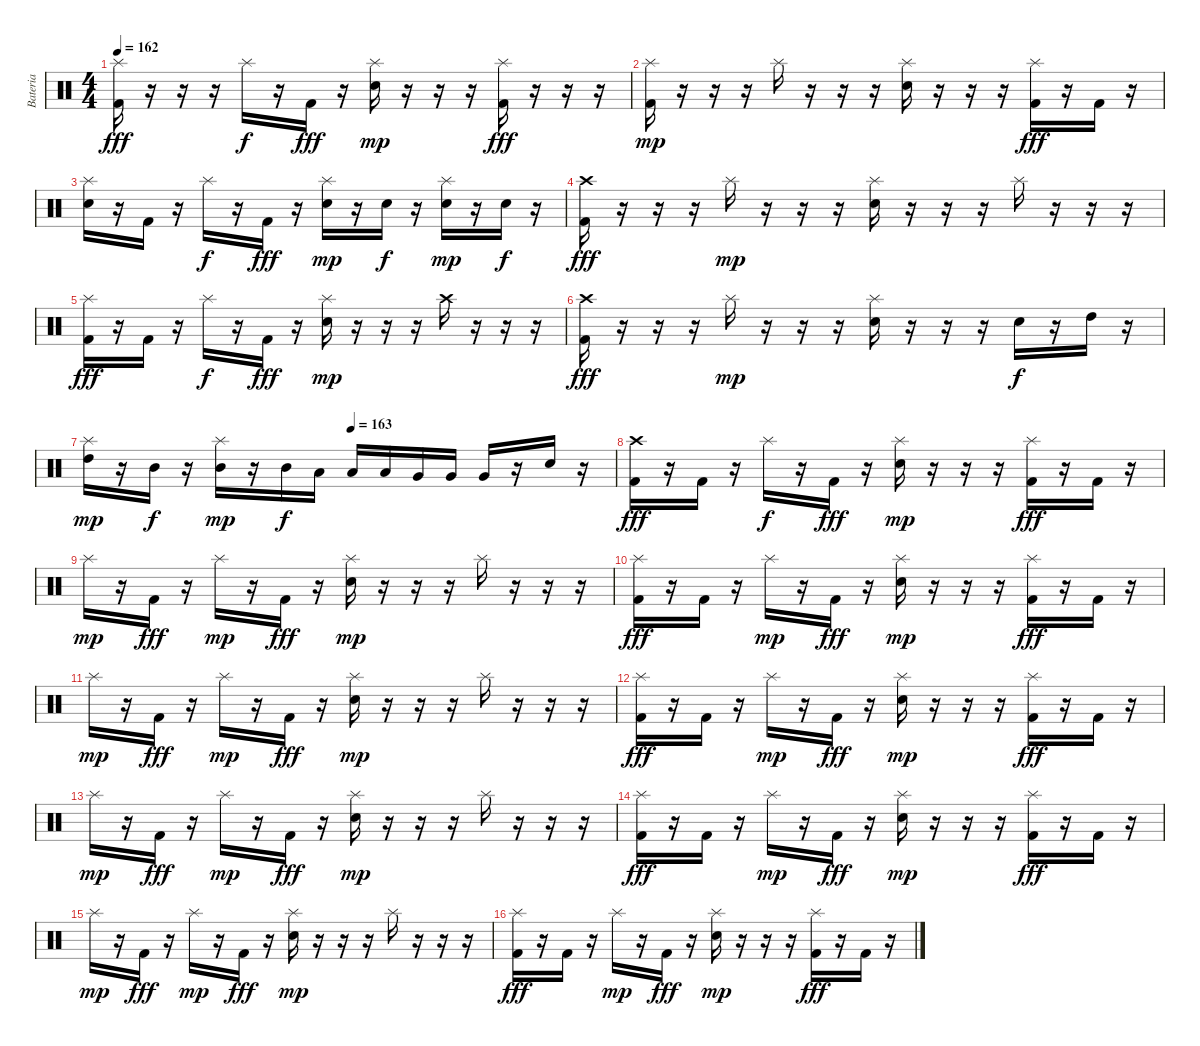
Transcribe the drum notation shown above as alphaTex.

\track ("Bateria" "Bateria") {instrument percussion}
\staff {score}
\articulation defaults
\ts (4 4)
\tempo 162
\clef neutral
\ks c
("Splash (hit)" "Kick (hit) 2").16{dy fff} r.16 r.16 r.16 "Splash (hit)".16{dy f} r.16 "Kick (hit) 2".16{dy fff} r.16 ("Splash (hit)" "Electric Snare (hit)").16{dy mp} r.16 r.16 r.16 ("Splash (hit)" "Kick (hit) 2").16{dy fff} r.16 r.16 r.16 |
("Splash (hit)" "Kick (hit) 2").16{dy mp} r.16 r.16 r.16 "Splash (hit)".16 r.16 r.16 r.16 ("Splash (hit)" "Electric Snare (hit)").16 r.16 r.16 r.16 ("Splash (hit)" "Kick (hit) 2").16{dy fff} r.16 "Kick (hit) 2".16 r.16 |
("Splash (hit)" "Electric Snare (hit)").16 r.16 "Kick (hit) 2".16 r.16 "Splash (hit)".16{dy f} r.16 "Kick (hit) 2".16{dy fff} r.16 ("Splash (hit)" "Electric Snare (hit)").16{dy mp} r.16 "Electric Snare (hit)".16{dy f} r.16 ("Splash (hit)" "Electric Snare (hit)").16{dy mp} r.16 "Electric Snare (hit)".16{dy f} r.16 |
("Crash high (hit)" "Kick (hit) 2").16{dy fff} r.16 r.16 r.16 "Splash (hit)".16{dy mp} r.16 r.16 r.16 ("Splash (hit)" "Electric Snare (hit)").16 r.16 r.16 r.16 "Splash (hit)".16 r.16 r.16 r.16 |
("Splash (hit)" "Kick (hit) 2").16{dy fff} r.16 "Kick (hit) 2".16 r.16 "Splash (hit)".16{dy f} r.16 "Kick (hit) 2".16{dy fff} r.16 ("Splash (hit)" "Electric Snare (hit)").16{dy mp} r.16 r.16 r.16 "Crash high (hit)".16 r.16 r.16 r.16 |
("Crash high (hit)" "Kick (hit) 2").16{dy fff} r.16 r.16 r.16 "Splash (hit)".16{dy mp} r.16 r.16 r.16 ("Splash (hit)" "Electric Snare (hit)").16 r.16 r.16 r.16 "Electric Snare (hit)".16{dy f} r.16 "High Tom (hit)".16 r.16 |
\tempo (163 0.5)
("Splash (hit)" "High Tom (hit)").16{dy mp} r.16 "Mid Tom (hit)".16{dy f} r.16 ("Splash (hit)" "Mid Tom (hit)").16{dy mp} r.16 "Mid Tom (hit)".16{dy f} "Low Tom (hit)".16 "Low Tom (hit)".16 "Low Tom (hit)".16 "Very Low Tom (hit)".16 "Very Low Tom (hit)".16 "Very Low Tom (hit)".16 r.16 "Electric Snare (hit)".16 r.16 |
("Crash high (hit)" "Kick (hit) 2").16{dy fff} r.16 "Kick (hit) 2".16 r.16 "Splash (hit)".16{dy f} r.16 "Kick (hit) 2".16{dy fff} r.16 ("Splash (hit)" "Electric Snare (hit)").16{dy mp} r.16 r.16 r.16 ("Splash (hit)" "Kick (hit) 2").16{dy fff} r.16 "Kick (hit) 2".16 r.16 |
"Splash (hit)".16{dy mp} r.16 "Kick (hit) 2".16{dy fff} r.16 "Splash (hit)".16{dy mp} r.16 "Kick (hit) 2".16{dy fff} r.16 ("Splash (hit)" "Electric Snare (hit)").16{dy mp} r.16 r.16 r.16 "Splash (hit)".16 r.16 r.16 r.16 |
("Splash (hit)" "Kick (hit) 2").16{dy fff} r.16 "Kick (hit) 2".16 r.16 "Splash (hit)".16{dy mp} r.16 "Kick (hit) 2".16{dy fff} r.16 ("Splash (hit)" "Electric Snare (hit)").16{dy mp} r.16 r.16 r.16 ("Splash (hit)" "Kick (hit) 2").16{dy fff} r.16 "Kick (hit) 2".16 r.16 |
"Splash (hit)".16{dy mp} r.16 "Kick (hit) 2".16{dy fff} r.16 "Splash (hit)".16{dy mp} r.16 "Kick (hit) 2".16{dy fff} r.16 ("Splash (hit)" "Electric Snare (hit)").16{dy mp} r.16 r.16 r.16 "Splash (hit)".16 r.16 r.16 r.16 |
("Splash (hit)" "Kick (hit) 2").16{dy fff} r.16 "Kick (hit) 2".16 r.16 "Splash (hit)".16{dy mp} r.16 "Kick (hit) 2".16{dy fff} r.16 ("Splash (hit)" "Electric Snare (hit)").16{dy mp} r.16 r.16 r.16 ("Splash (hit)" "Kick (hit) 2").16{dy fff} r.16 "Kick (hit) 2".16 r.16 |
"Splash (hit)".16{dy mp} r.16 "Kick (hit) 2".16{dy fff} r.16 "Splash (hit)".16{dy mp} r.16 "Kick (hit) 2".16{dy fff} r.16 ("Splash (hit)" "Electric Snare (hit)").16{dy mp} r.16 r.16 r.16 "Splash (hit)".16 r.16 r.16 r.16 |
("Splash (hit)" "Kick (hit) 2").16{dy fff} r.16 "Kick (hit) 2".16 r.16 "Splash (hit)".16{dy mp} r.16 "Kick (hit) 2".16{dy fff} r.16 ("Splash (hit)" "Electric Snare (hit)").16{dy mp} r.16 r.16 r.16 ("Splash (hit)" "Kick (hit) 2").16{dy fff} r.16 "Kick (hit) 2".16 r.16 |
"Splash (hit)".16{dy mp} r.16 "Kick (hit) 2".16{dy fff} r.16 "Splash (hit)".16{dy mp} r.16 "Kick (hit) 2".16{dy fff} r.16 ("Splash (hit)" "Electric Snare (hit)").16{dy mp} r.16 r.16 r.16 "Splash (hit)".16 r.16 r.16 r.16 |
("Splash (hit)" "Kick (hit) 2").16{dy fff} r.16 "Kick (hit) 2".16 r.16 "Splash (hit)".16{dy mp} r.16 "Kick (hit) 2".16{dy fff} r.16 ("Splash (hit)" "Electric Snare (hit)").16{dy mp} r.16 r.16 r.16 ("Splash (hit)" "Kick (hit) 2").16{dy fff} r.16 "Kick (hit) 2".16 r.16
